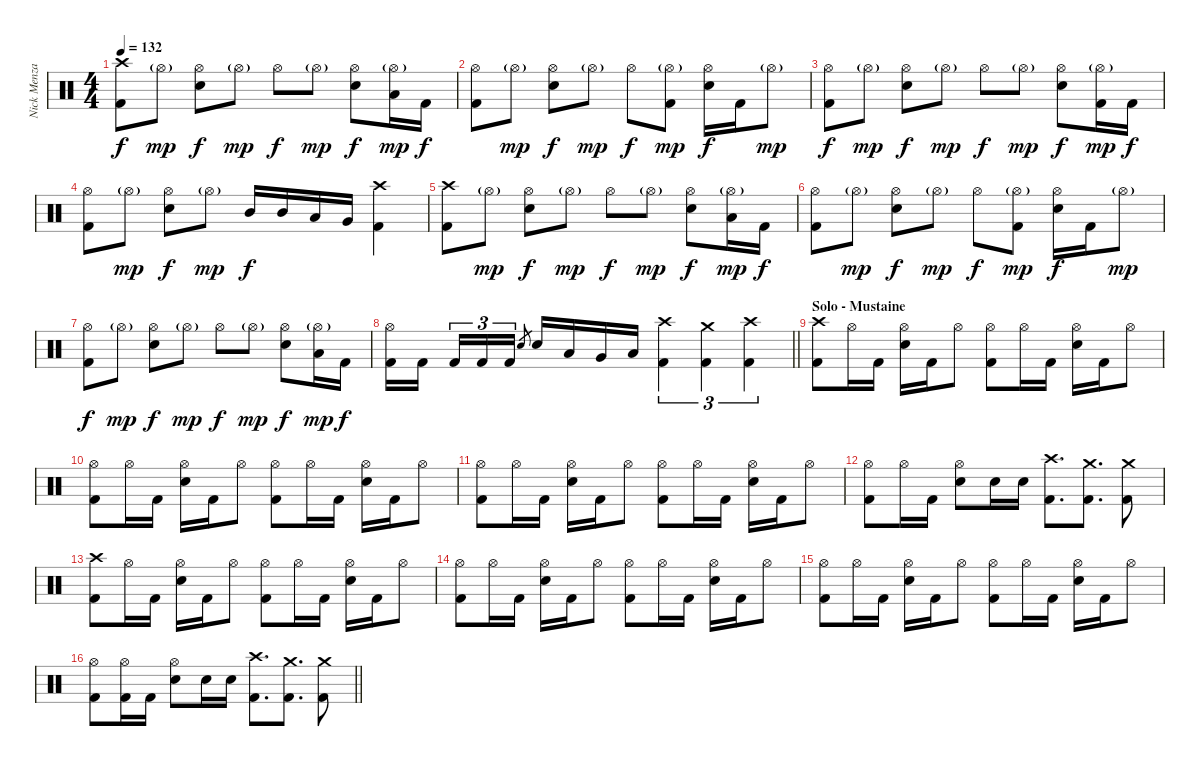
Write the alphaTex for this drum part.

\track ("Nick Menza" "Nick Menza") {instrument percussion}
\staff {score}
\articulation defaults
\ts (4 4)
\tempo 132
\clef neutral
\ks c
("Crash high (hit)" "Kick (hit) 2").8{dy f volume 16} "Hi-Hat (open)"{g}.8{dy mp} ("Hi-Hat (open)" "Snare (hit) 2").8{dy f} "Hi-Hat (open)"{g}.8{dy mp} "Hi-Hat (open)".8{dy f} "Hi-Hat (open)"{g}.8{dy mp} ("Hi-Hat (open)" "Snare (hit) 2").8{dy f} ("Hi-Hat (open)"{g} "Low Floor Tom (hit)").16{dy mp} "Kick (hit) 2".16{dy f} |
("Hi-Hat (open)" "Kick (hit) 2").8 "Hi-Hat (open)"{g}.8{dy mp} ("Hi-Hat (open)" "Snare (hit) 2").8{dy f} "Hi-Hat (open)"{g}.8{dy mp} "Hi-Hat (open)".8{dy f} ("Hi-Hat (open)"{g} "Kick (hit) 2").8{dy mp} ("Hi-Hat (open)" "Snare (hit) 2").16{dy f} "Kick (hit) 2".16 "Hi-Hat (open)"{g}.8{dy mp} |
("Hi-Hat (open)" "Kick (hit) 2").8{dy f} "Hi-Hat (open)"{g}.8{dy mp} ("Hi-Hat (open)" "Snare (hit) 2").8{dy f} "Hi-Hat (open)"{g}.8{dy mp} "Hi-Hat (open)".8{dy f} "Hi-Hat (open)"{g}.8{dy mp} ("Hi-Hat (open)" "Snare (hit) 2").8{dy f} ("Hi-Hat (open)"{g} "Kick (hit) 2").16{dy mp} "Kick (hit) 2".16{dy f} |
("Hi-Hat (open)" "Kick (hit) 2").8 "Hi-Hat (open)"{g}.8{dy mp} ("Hi-Hat (open)" "Snare (hit) 2").8{dy f} "Hi-Hat (open)"{g}.8{dy mp} "Mid Tom (hit)".16{dy f} "Mid Tom (hit)".16 "Low Tom (hit)".16 "Very Low Tom (hit)".16 ("Crash high (hit)" "Kick (hit) 2").4 |
("Crash high (hit)" "Kick (hit) 2").8 "Hi-Hat (open)"{g}.8{dy mp} ("Hi-Hat (open)" "Snare (hit) 2").8{dy f} "Hi-Hat (open)"{g}.8{dy mp} "Hi-Hat (open)".8{dy f} "Hi-Hat (open)"{g}.8{dy mp} ("Hi-Hat (open)" "Snare (hit) 2").8{dy f} ("Hi-Hat (open)"{g} "Low Floor Tom (hit)").16{dy mp} "Kick (hit) 2".16{dy f} |
("Hi-Hat (open)" "Kick (hit) 2").8 "Hi-Hat (open)"{g}.8{dy mp} ("Hi-Hat (open)" "Snare (hit) 2").8{dy f} "Hi-Hat (open)"{g}.8{dy mp} "Hi-Hat (open)".8{dy f} ("Hi-Hat (open)"{g} "Kick (hit) 2").8{dy mp} ("Hi-Hat (open)" "Snare (hit) 2").16{dy f} "Kick (hit) 2".16 "Hi-Hat (open)"{g}.8{dy mp} |
("Hi-Hat (open)" "Kick (hit) 2").8{dy f} "Hi-Hat (open)"{g}.8{dy mp} ("Hi-Hat (open)" "Snare (hit) 2").8{dy f} "Hi-Hat (open)"{g}.8{dy mp} "Hi-Hat (open)".8{dy f} "Hi-Hat (open)"{g}.8{dy mp} ("Hi-Hat (open)" "Snare (hit) 2").8{dy f} ("Hi-Hat (open)"{g} "Low Floor Tom (hit)").16{dy mp} "Kick (hit) 2".16{dy f} |
\barLineRight lightlight
("Hi-Hat (open)" "Kick (hit) 2").16 "Kick (hit) 2".16{beam splitsecondary} "Kick (hit) 2".16{tu (3 2)} "Kick (hit) 2".16{tu (3 2)} "Kick (hit) 2".16{tu (3 2)} "Snare (hit) 2".8{gr} "Snare (hit) 2".16 "Low Tom (hit)".16 "Very Low Tom (hit)".16 "Low Floor Tom (hit)".16 ("Crash high (hit)" "Kick (hit) 2").4{tu (3 2)} ("Crash medium (hit)" "Kick (hit) 2").4{tu (3 2)} ("Crash high (hit)" "Kick (hit) 2").4{tu (3 2)} |
\section ("" "Solo - Mustaine")
("Crash high (hit)" "Kick (hit) 2").8 "Hi-Hat (open)".16 "Kick (hit) 2".16 ("Hi-Hat (open)" "Snare (hit) 2").16 "Kick (hit) 2".16 "Hi-Hat (open)".8 ("Hi-Hat (open)" "Kick (hit) 2").8 "Hi-Hat (open)".16 "Kick (hit) 2".16 ("Hi-Hat (open)" "Snare (hit) 2").16 "Kick (hit) 2".16 "Hi-Hat (open)".8 |
("Hi-Hat (open)" "Kick (hit) 2").8 "Hi-Hat (open)".16 "Kick (hit) 2".16 ("Hi-Hat (open)" "Snare (hit) 2").16 "Kick (hit) 2".16 "Hi-Hat (open)".8 ("Hi-Hat (open)" "Kick (hit) 2").8 "Hi-Hat (open)".16 "Kick (hit) 2".16 ("Hi-Hat (open)" "Snare (hit) 2").16 "Kick (hit) 2".16 "Hi-Hat (open)".8 |
("Hi-Hat (open)" "Kick (hit) 2").8 "Hi-Hat (open)".16 "Kick (hit) 2".16 ("Hi-Hat (open)" "Snare (hit) 2").16 "Kick (hit) 2".16 "Hi-Hat (open)".8 ("Hi-Hat (open)" "Kick (hit) 2").8 "Hi-Hat (open)".16 "Kick (hit) 2".16 ("Hi-Hat (open)" "Snare (hit) 2").16 "Kick (hit) 2".16 "Hi-Hat (open)".8 |
("Hi-Hat (open)" "Kick (hit) 2").8 "Hi-Hat (open)".16 "Kick (hit) 2".16 ("Hi-Hat (open)" "Snare (hit) 2").8 "Snare (hit) 2".16 "Snare (hit) 2".16 ("Crash high (hit)" "Kick (hit) 2").8{d} ("Crash medium (hit)" "Kick (hit) 2").8{d} ("Crash medium (hit)" "Kick (hit) 2").8 |
("Crash high (hit)" "Kick (hit) 2").8 "Hi-Hat (open)".16 "Kick (hit) 2".16 ("Hi-Hat (open)" "Snare (hit) 2").16 "Kick (hit) 2".16 "Hi-Hat (open)".8 ("Hi-Hat (open)" "Kick (hit) 2").8 "Hi-Hat (open)".16 "Kick (hit) 2".16 ("Hi-Hat (open)" "Snare (hit) 2").16 "Kick (hit) 2".16 "Hi-Hat (open)".8 |
("Hi-Hat (open)" "Kick (hit) 2").8 "Hi-Hat (open)".16 "Kick (hit) 2".16 ("Hi-Hat (open)" "Snare (hit) 2").16 "Kick (hit) 2".16 "Hi-Hat (open)".8 ("Hi-Hat (open)" "Kick (hit) 2").8 "Hi-Hat (open)".16 "Kick (hit) 2".16 ("Hi-Hat (open)" "Snare (hit) 2").16 "Kick (hit) 2".16 "Hi-Hat (open)".8 |
("Hi-Hat (open)" "Kick (hit) 2").8 "Hi-Hat (open)".16 "Kick (hit) 2".16 ("Hi-Hat (open)" "Snare (hit) 2").16 "Kick (hit) 2".16 "Hi-Hat (open)".8 ("Hi-Hat (open)" "Kick (hit) 2").8 "Hi-Hat (open)".16 "Kick (hit) 2".16 ("Hi-Hat (open)" "Snare (hit) 2").16 "Kick (hit) 2".16 "Hi-Hat (open)".8 |
\barLineRight lightlight
("Hi-Hat (open)" "Kick (hit) 2").8 ("Hi-Hat (open)" "Kick (hit) 2").16 "Kick (hit) 2".16 ("Hi-Hat (open)" "Snare (hit) 2").8 "Snare (hit) 2".16 "Snare (hit) 2".16 ("Crash high (hit)" "Kick (hit) 2").8{d} ("Crash medium (hit)" "Kick (hit) 2").8{d} ("Crash medium (hit)" "Kick (hit) 2").8
